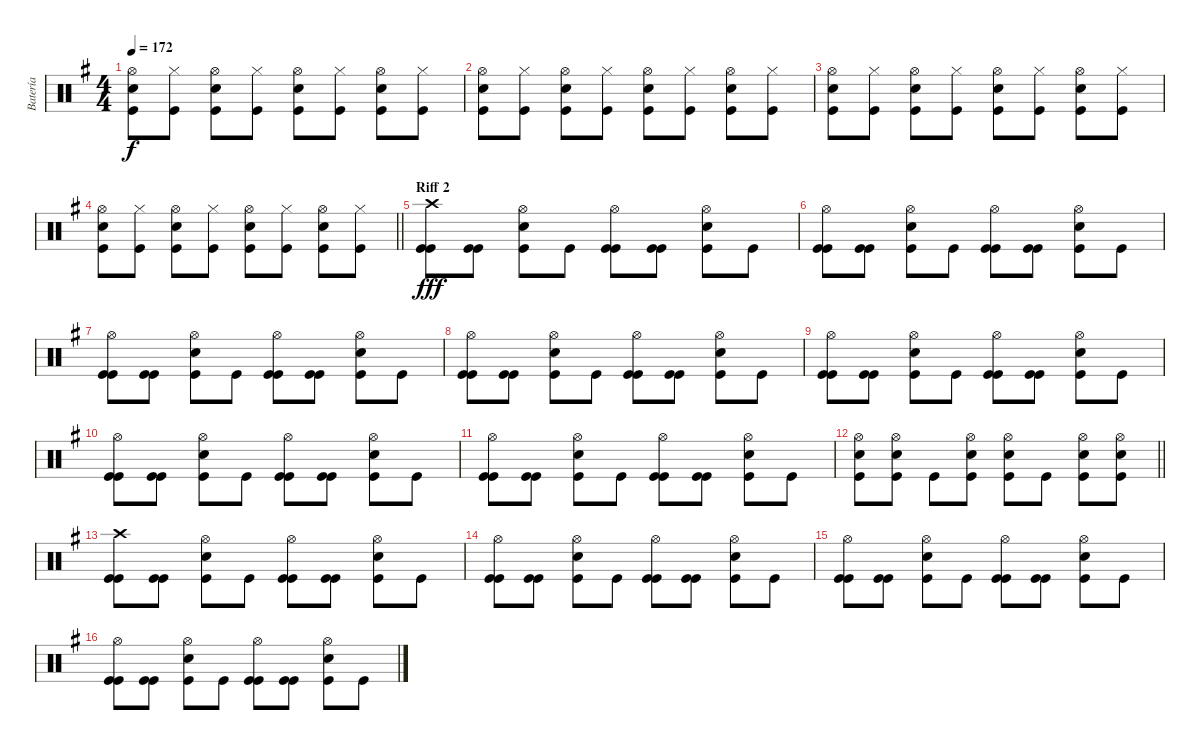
\track ("Batería" "Batería") {instrument percussion}
\staff {score}
\articulation defaults
\ts (4 4)
\tempo 172
\clef neutral
\ks eminor
("Kick (hit)" "Electric Snare (hit)" "Hi-Hat (open)").8{dy f} ("Kick (hit)" "Hi-Hat (closed)").8 ("Kick (hit)" "Electric Snare (hit)" "Hi-Hat (open)").8 ("Kick (hit)" "Hi-Hat (closed)").8 ("Kick (hit)" "Electric Snare (hit)" "Hi-Hat (open)").8 ("Kick (hit)" "Hi-Hat (closed)").8 ("Kick (hit)" "Electric Snare (hit)" "Hi-Hat (open)").8 ("Kick (hit)" "Hi-Hat (closed)").8 |
("Kick (hit)" "Electric Snare (hit)" "Hi-Hat (open)").8 ("Kick (hit)" "Hi-Hat (closed)").8 ("Kick (hit)" "Electric Snare (hit)" "Hi-Hat (open)").8 ("Kick (hit)" "Hi-Hat (closed)").8 ("Kick (hit)" "Electric Snare (hit)" "Hi-Hat (open)").8 ("Kick (hit)" "Hi-Hat (closed)").8 ("Kick (hit)" "Electric Snare (hit)" "Hi-Hat (open)").8 ("Kick (hit)" "Hi-Hat (closed)").8 |
("Kick (hit)" "Electric Snare (hit)" "Hi-Hat (open)").8 ("Kick (hit)" "Hi-Hat (closed)").8 ("Kick (hit)" "Electric Snare (hit)" "Hi-Hat (open)").8 ("Kick (hit)" "Hi-Hat (closed)").8 ("Kick (hit)" "Electric Snare (hit)" "Hi-Hat (open)").8 ("Kick (hit)" "Hi-Hat (closed)").8 ("Kick (hit)" "Electric Snare (hit)" "Hi-Hat (open)").8 ("Kick (hit)" "Hi-Hat (closed)").8 |
\barLineRight lightlight
("Kick (hit)" "Electric Snare (hit)" "Hi-Hat (open)").8 ("Kick (hit)" "Hi-Hat (closed)").8 ("Kick (hit)" "Electric Snare (hit)" "Hi-Hat (open)").8 ("Kick (hit)" "Hi-Hat (closed)").8 ("Kick (hit)" "Electric Snare (hit)" "Hi-Hat (open)").8 ("Kick (hit)" "Hi-Hat (closed)").8 ("Kick (hit)" "Electric Snare (hit)" "Hi-Hat (open)").8 ("Kick (hit)" "Hi-Hat (closed)").8 |
\section ("" "Riff 2")
("Kick (hit)" "Kick (hit)" "Crash high (hit)").8{dy fff} ("Kick (hit)" "Kick (hit)").8 ("Kick (hit)" "Electric Snare (hit)" "Hi-Hat (open)").8 "Kick (hit)".8 ("Kick (hit)" "Kick (hit)" "Hi-Hat (open)").8 ("Kick (hit)" "Kick (hit)").8 ("Kick (hit)" "Electric Snare (hit)" "Hi-Hat (open)").8 "Kick (hit)".8 |
("Kick (hit)" "Kick (hit)" "Hi-Hat (open)").8 ("Kick (hit)" "Kick (hit)").8 ("Kick (hit)" "Electric Snare (hit)" "Hi-Hat (open)").8 "Kick (hit)".8 ("Kick (hit)" "Kick (hit)" "Hi-Hat (open)").8 ("Kick (hit)" "Kick (hit)").8 ("Kick (hit)" "Electric Snare (hit)" "Hi-Hat (open)").8 "Kick (hit)".8 |
("Kick (hit)" "Kick (hit)" "Hi-Hat (open)").8 ("Kick (hit)" "Kick (hit)").8 ("Kick (hit)" "Electric Snare (hit)" "Hi-Hat (open)").8 "Kick (hit)".8 ("Kick (hit)" "Kick (hit)" "Hi-Hat (open)").8 ("Kick (hit)" "Kick (hit)").8 ("Kick (hit)" "Electric Snare (hit)" "Hi-Hat (open)").8 "Kick (hit)".8 |
("Kick (hit)" "Kick (hit)" "Hi-Hat (open)").8 ("Kick (hit)" "Kick (hit)").8 ("Kick (hit)" "Electric Snare (hit)" "Hi-Hat (open)").8 "Kick (hit)".8 ("Kick (hit)" "Kick (hit)" "Hi-Hat (open)").8 ("Kick (hit)" "Kick (hit)").8 ("Kick (hit)" "Electric Snare (hit)" "Hi-Hat (open)").8 "Kick (hit)".8 |
("Kick (hit)" "Kick (hit)" "Hi-Hat (open)").8 ("Kick (hit)" "Kick (hit)").8 ("Kick (hit)" "Electric Snare (hit)" "Hi-Hat (open)").8 "Kick (hit)".8 ("Kick (hit)" "Kick (hit)" "Hi-Hat (open)").8 ("Kick (hit)" "Kick (hit)").8 ("Kick (hit)" "Electric Snare (hit)" "Hi-Hat (open)").8 "Kick (hit)".8 |
("Kick (hit)" "Kick (hit)" "Hi-Hat (open)").8 ("Kick (hit)" "Kick (hit)").8 ("Kick (hit)" "Electric Snare (hit)" "Hi-Hat (open)").8 "Kick (hit)".8 ("Kick (hit)" "Kick (hit)" "Hi-Hat (open)").8 ("Kick (hit)" "Kick (hit)").8 ("Kick (hit)" "Electric Snare (hit)" "Hi-Hat (open)").8 "Kick (hit)".8 |
("Kick (hit)" "Kick (hit)" "Hi-Hat (open)").8 ("Kick (hit)" "Kick (hit)").8 ("Kick (hit)" "Electric Snare (hit)" "Hi-Hat (open)").8 "Kick (hit)".8 ("Kick (hit)" "Kick (hit)" "Hi-Hat (open)").8 ("Kick (hit)" "Kick (hit)").8 ("Kick (hit)" "Electric Snare (hit)" "Hi-Hat (open)").8 "Kick (hit)".8 |
\barLineRight lightlight
("Kick (hit)" "Electric Snare (hit)" "Hi-Hat (open)").8 ("Kick (hit)" "Electric Snare (hit)" "Hi-Hat (open)").8 "Kick (hit)".8 ("Kick (hit)" "Electric Snare (hit)" "Hi-Hat (open)").8 ("Kick (hit)" "Electric Snare (hit)" "Hi-Hat (open)").8 "Kick (hit)".8 ("Kick (hit)" "Electric Snare (hit)" "Hi-Hat (open)").8 ("Kick (hit)" "Electric Snare (hit)" "Hi-Hat (open)").8 |
("Kick (hit)" "Kick (hit)" "Crash high (hit)").8 ("Kick (hit)" "Kick (hit)").8 ("Kick (hit)" "Electric Snare (hit)" "Hi-Hat (open)").8 "Kick (hit)".8 ("Kick (hit)" "Kick (hit)" "Hi-Hat (open)").8 ("Kick (hit)" "Kick (hit)").8 ("Kick (hit)" "Electric Snare (hit)" "Hi-Hat (open)").8 "Kick (hit)".8 |
("Kick (hit)" "Kick (hit)" "Hi-Hat (open)").8 ("Kick (hit)" "Kick (hit)").8 ("Kick (hit)" "Electric Snare (hit)" "Hi-Hat (open)").8 "Kick (hit)".8 ("Kick (hit)" "Kick (hit)" "Hi-Hat (open)").8 ("Kick (hit)" "Kick (hit)").8 ("Kick (hit)" "Electric Snare (hit)" "Hi-Hat (open)").8 "Kick (hit)".8 |
("Kick (hit)" "Kick (hit)" "Hi-Hat (open)").8 ("Kick (hit)" "Kick (hit)").8 ("Kick (hit)" "Electric Snare (hit)" "Hi-Hat (open)").8 "Kick (hit)".8 ("Kick (hit)" "Kick (hit)" "Hi-Hat (open)").8 ("Kick (hit)" "Kick (hit)").8 ("Kick (hit)" "Electric Snare (hit)" "Hi-Hat (open)").8 "Kick (hit)".8 |
("Kick (hit)" "Kick (hit)" "Hi-Hat (open)").8 ("Kick (hit)" "Kick (hit)").8 ("Kick (hit)" "Electric Snare (hit)" "Hi-Hat (open)").8 "Kick (hit)".8 ("Kick (hit)" "Kick (hit)" "Hi-Hat (open)").8 ("Kick (hit)" "Kick (hit)").8 ("Kick (hit)" "Electric Snare (hit)" "Hi-Hat (open)").8 "Kick (hit)".8
